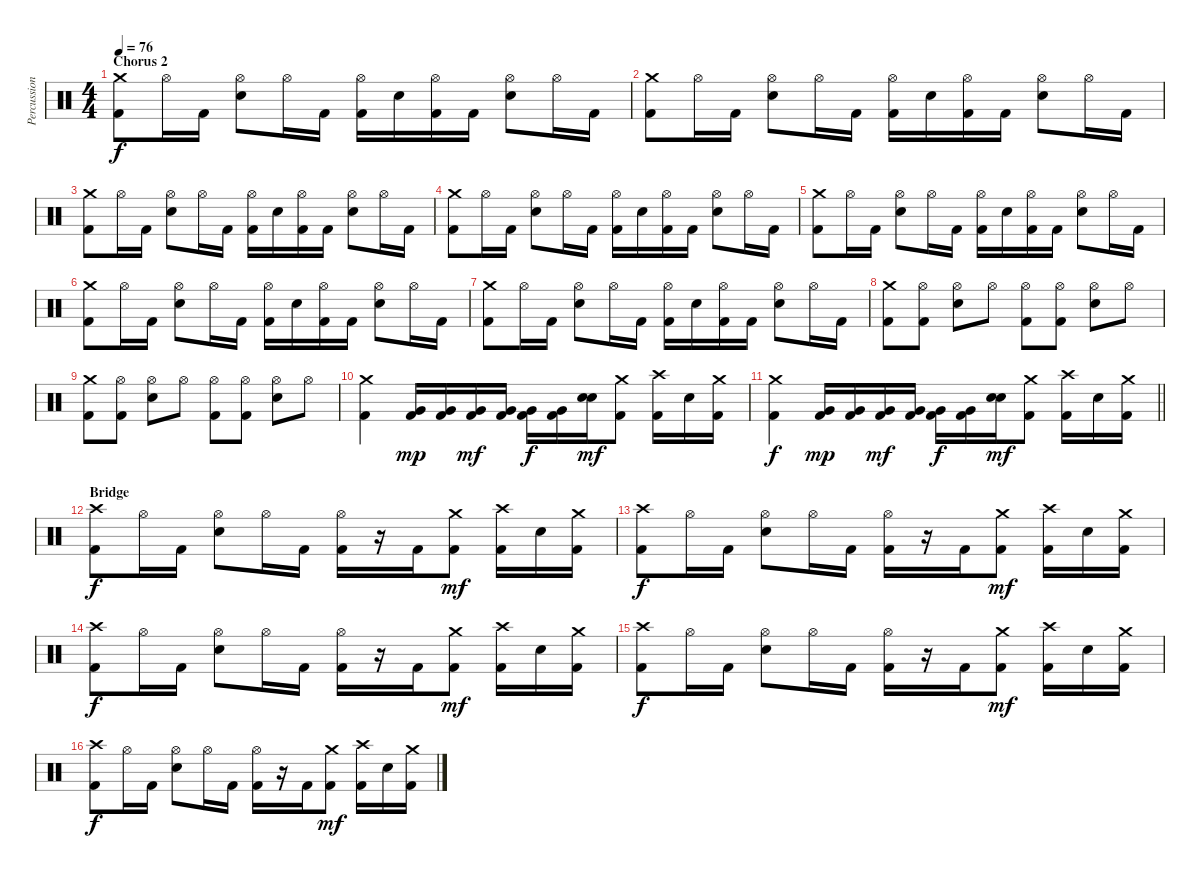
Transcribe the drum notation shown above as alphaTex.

\track ("Percussions" "Percussion") {instrument percussion}
\staff {score}
\articulation defaults
\ts (4 4)
\section ("" "Chorus 2")
\tempo 76
\clef neutral
\ks c
("Crash medium (hit)" "Kick (hit) 2").8{dy f} "Hi-Hat (open)".16 "Kick (hit) 2".16 ("Hi-Hat (open)" "Electric Snare (hit)").8 "Hi-Hat (open)".16 "Kick (hit) 2".16 ("Hi-Hat (open)" "Kick (hit) 2").16 "Electric Snare (hit)".16 ("Hi-Hat (open)" "Kick (hit) 2").16 "Kick (hit) 2".16 ("Hi-Hat (open)" "Electric Snare (hit)").8 "Hi-Hat (open)".16 "Kick (hit) 2".16 |
("Crash medium (hit)" "Kick (hit) 2").8 "Hi-Hat (open)".16 "Kick (hit) 2".16 ("Hi-Hat (open)" "Electric Snare (hit)").8 "Hi-Hat (open)".16 "Kick (hit) 2".16 ("Hi-Hat (open)" "Kick (hit) 2").16 "Electric Snare (hit)".16 ("Hi-Hat (open)" "Kick (hit) 2").16 "Kick (hit) 2".16 ("Hi-Hat (open)" "Electric Snare (hit)").8 "Hi-Hat (open)".16 "Kick (hit) 2".16 |
("Crash medium (hit)" "Kick (hit) 2").8 "Hi-Hat (open)".16 "Kick (hit) 2".16 ("Hi-Hat (open)" "Electric Snare (hit)").8 "Hi-Hat (open)".16 "Kick (hit) 2".16 ("Hi-Hat (open)" "Kick (hit) 2").16 "Electric Snare (hit)".16 ("Hi-Hat (open)" "Kick (hit) 2").16 "Kick (hit) 2".16 ("Hi-Hat (open)" "Electric Snare (hit)").8 "Hi-Hat (open)".16 "Kick (hit) 2".16 |
("Crash medium (hit)" "Kick (hit) 2").8 "Hi-Hat (open)".16 "Kick (hit) 2".16 ("Hi-Hat (open)" "Electric Snare (hit)").8 "Hi-Hat (open)".16 "Kick (hit) 2".16 ("Hi-Hat (open)" "Kick (hit) 2").16 "Electric Snare (hit)".16 ("Hi-Hat (open)" "Kick (hit) 2").16 "Kick (hit) 2".16 ("Hi-Hat (open)" "Electric Snare (hit)").8 "Hi-Hat (open)".16 "Kick (hit) 2".16 |
("Crash medium (hit)" "Kick (hit) 2").8 "Hi-Hat (open)".16 "Kick (hit) 2".16 ("Hi-Hat (open)" "Electric Snare (hit)").8 "Hi-Hat (open)".16 "Kick (hit) 2".16 ("Hi-Hat (open)" "Kick (hit) 2").16 "Electric Snare (hit)".16 ("Hi-Hat (open)" "Kick (hit) 2").16 "Kick (hit) 2".16 ("Hi-Hat (open)" "Electric Snare (hit)").8 "Hi-Hat (open)".16 "Kick (hit) 2".16 |
("Crash medium (hit)" "Kick (hit) 2").8 "Hi-Hat (open)".16 "Kick (hit) 2".16 ("Hi-Hat (open)" "Electric Snare (hit)").8 "Hi-Hat (open)".16 "Kick (hit) 2".16 ("Hi-Hat (open)" "Kick (hit) 2").16 "Electric Snare (hit)".16 ("Hi-Hat (open)" "Kick (hit) 2").16 "Kick (hit) 2".16 ("Hi-Hat (open)" "Electric Snare (hit)").8 "Hi-Hat (open)".16 "Kick (hit) 2".16 |
("Crash medium (hit)" "Kick (hit) 2").8 "Hi-Hat (open)".16 "Kick (hit) 2".16 ("Hi-Hat (open)" "Electric Snare (hit)").8 "Hi-Hat (open)".16 "Kick (hit) 2".16 ("Hi-Hat (open)" "Kick (hit) 2").16 "Electric Snare (hit)".16 ("Hi-Hat (open)" "Kick (hit) 2").16 "Kick (hit) 2".16 ("Hi-Hat (open)" "Electric Snare (hit)").8 "Hi-Hat (open)".16 "Kick (hit) 2".16 |
("Crash medium (hit)" "Kick (hit) 2").8 ("Hi-Hat (open)" "Kick (hit) 2").8 ("Hi-Hat (open)" "Electric Snare (hit)").8 "Hi-Hat (open)".8 ("Hi-Hat (open)" "Kick (hit) 2").8 ("Hi-Hat (open)" "Kick (hit) 2").8 ("Hi-Hat (open)" "Electric Snare (hit)").8 "Hi-Hat (open)".8 |
("Crash medium (hit)" "Kick (hit) 2").8 ("Hi-Hat (open)" "Kick (hit) 2").8 ("Hi-Hat (open)" "Electric Snare (hit)").8 "Hi-Hat (open)".8 ("Hi-Hat (open)" "Kick (hit) 2").8 ("Hi-Hat (open)" "Kick (hit) 2").8 ("Hi-Hat (open)" "Electric Snare (hit)").8 "Hi-Hat (open)".8 |
("Crash medium (hit)" "Kick (hit) 2").4 ("Very Low Tom (hit)" "Kick (hit) 2").16{dy mp} ("Very Low Tom (hit)" "Kick (hit) 2").16 ("Very Low Tom (hit)" "Kick (hit) 2").16{dy mf} ("Very Low Tom (hit)" "Kick (hit) 2").16 ("Very Low Tom (hit)" "Kick (hit) 2").16{dy f} ("Very Low Tom (hit)" "Kick (hit) 2").16 ("Electric Snare (hit)" "Electric Snare (hit)").16{dy mf} ("Crash medium (hit)" "Kick (hit) 2").8 ("Crash high (hit)" "Kick (hit) 2").16 "Electric Snare (hit)".16 ("Crash medium (hit)" "Kick (hit) 2").16 |
\barLineRight lightlight
("Crash medium (hit)" "Kick (hit) 2").4{dy f} ("Very Low Tom (hit)" "Kick (hit) 2").16{dy mp} ("Very Low Tom (hit)" "Kick (hit) 2").16 ("Very Low Tom (hit)" "Kick (hit) 2").16{dy mf} ("Very Low Tom (hit)" "Kick (hit) 2").16 ("Very Low Tom (hit)" "Kick (hit) 2").16{dy f} ("Very Low Tom (hit)" "Kick (hit) 2").16 ("Electric Snare (hit)" "Electric Snare (hit)").16{dy mf} ("Crash medium (hit)" "Kick (hit) 2").8 ("Crash high (hit)" "Kick (hit) 2").16 "Electric Snare (hit)".16 ("Crash medium (hit)" "Kick (hit) 2").16 |
\section ("" "Bridge")
("Crash high (hit)" "Kick (hit) 2").8{dy f} "Hi-Hat (open)".16 "Kick (hit) 2".16 ("Hi-Hat (open)" "Electric Snare (hit)").8 "Hi-Hat (open)".16 "Kick (hit) 2".16 ("Hi-Hat (open)" "Kick (hit) 2").16 r.16 "Kick (hit) 2".16 ("Crash medium (hit)" "Kick (hit) 2").8{dy mf} ("Crash high (hit)" "Kick (hit) 2").16 "Electric Snare (hit)".16 ("Crash medium (hit)" "Kick (hit) 2").16 |
("Crash high (hit)" "Kick (hit) 2").8{dy f} "Hi-Hat (open)".16 "Kick (hit) 2".16 ("Hi-Hat (open)" "Electric Snare (hit)").8 "Hi-Hat (open)".16 "Kick (hit) 2".16 ("Hi-Hat (open)" "Kick (hit) 2").16 r.16 "Kick (hit) 2".16 ("Crash medium (hit)" "Kick (hit) 2").8{dy mf} ("Crash high (hit)" "Kick (hit) 2").16 "Electric Snare (hit)".16 ("Crash medium (hit)" "Kick (hit) 2").16 |
("Crash high (hit)" "Kick (hit) 2").8{dy f} "Hi-Hat (open)".16 "Kick (hit) 2".16 ("Hi-Hat (open)" "Electric Snare (hit)").8 "Hi-Hat (open)".16 "Kick (hit) 2".16 ("Hi-Hat (open)" "Kick (hit) 2").16 r.16 "Kick (hit) 2".16 ("Crash medium (hit)" "Kick (hit) 2").8{dy mf} ("Crash high (hit)" "Kick (hit) 2").16 "Electric Snare (hit)".16 ("Crash medium (hit)" "Kick (hit) 2").16 |
("Crash high (hit)" "Kick (hit) 2").8{dy f} "Hi-Hat (open)".16 "Kick (hit) 2".16 ("Hi-Hat (open)" "Electric Snare (hit)").8 "Hi-Hat (open)".16 "Kick (hit) 2".16 ("Hi-Hat (open)" "Kick (hit) 2").16 r.16 "Kick (hit) 2".16 ("Crash medium (hit)" "Kick (hit) 2").8{dy mf} ("Crash high (hit)" "Kick (hit) 2").16 "Electric Snare (hit)".16 ("Crash medium (hit)" "Kick (hit) 2").16 |
("Crash high (hit)" "Kick (hit) 2").8{dy f} "Hi-Hat (open)".16 "Kick (hit) 2".16 ("Hi-Hat (open)" "Electric Snare (hit)").8 "Hi-Hat (open)".16 "Kick (hit) 2".16 ("Hi-Hat (open)" "Kick (hit) 2").16 r.16 "Kick (hit) 2".16 ("Crash medium (hit)" "Kick (hit) 2").8{dy mf} ("Crash high (hit)" "Kick (hit) 2").16 "Electric Snare (hit)".16 ("Crash medium (hit)" "Kick (hit) 2").16
